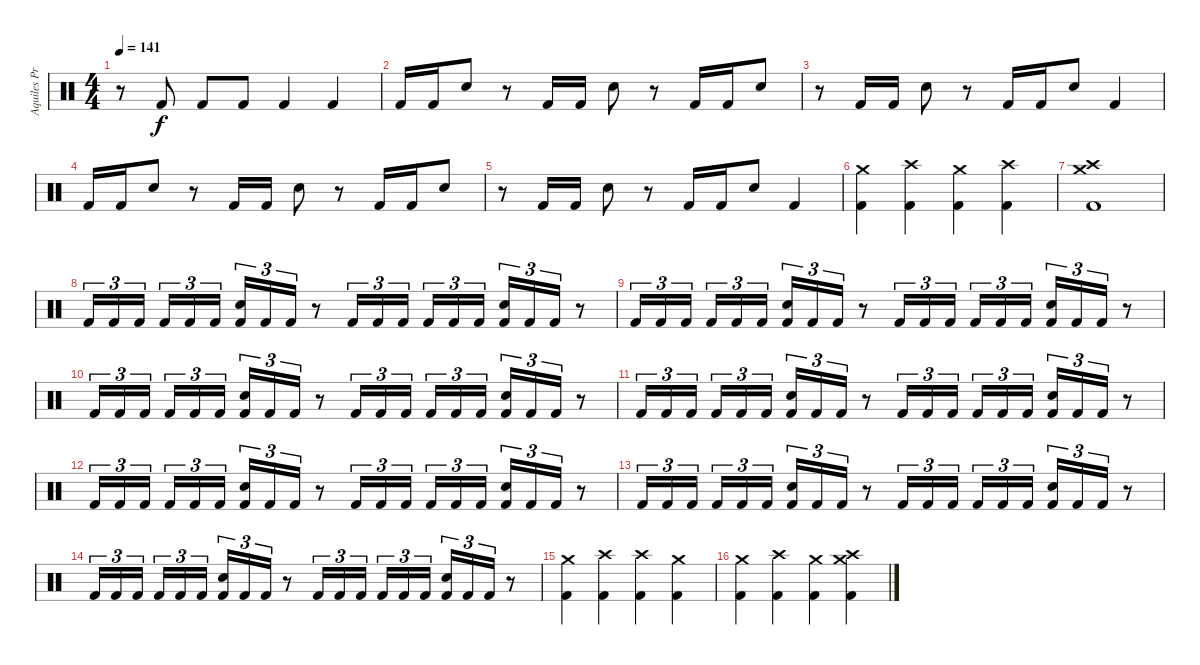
\track ("Aquiles Priester" "Aquiles Pr") {instrument percussion}
\staff {score}
\articulation defaults
\ts (4 4)
\tempo 141
\clef neutral
\ks c
r.8{dy f} "Kick (hit) 2".8 "Kick (hit) 2".8 "Kick (hit) 2".8 "Kick (hit) 2".4 "Kick (hit) 2".4 |
"Kick (hit) 2".16 "Kick (hit) 2".16 "Electric Snare (hit)".8 r.8 "Kick (hit) 2".16 "Kick (hit) 2".16 "Electric Snare (hit)".8 r.8 "Kick (hit) 2".16 "Kick (hit) 2".16 "Electric Snare (hit)".8 |
r.8 "Kick (hit) 2".16 "Kick (hit) 2".16 "Electric Snare (hit)".8 r.8 "Kick (hit) 2".16 "Kick (hit) 2".16 "Electric Snare (hit)".8 "Kick (hit) 2".4 |
"Kick (hit) 2".16 "Kick (hit) 2".16 "Electric Snare (hit)".8 r.8 "Kick (hit) 2".16 "Kick (hit) 2".16 "Electric Snare (hit)".8 r.8 "Kick (hit) 2".16 "Kick (hit) 2".16 "Electric Snare (hit)".8 |
r.8 "Kick (hit) 2".16 "Kick (hit) 2".16 "Electric Snare (hit)".8 r.8 "Kick (hit) 2".16 "Kick (hit) 2".16 "Electric Snare (hit)".8 "Kick (hit) 2".4 |
("Crash medium (hit)" "Kick (hit) 2").4 ("Crash high (hit)" "Kick (hit) 2").4 ("Crash medium (hit)" "Kick (hit) 2").4 ("Crash high (hit)" "Kick (hit) 2").4 |
("Crash high (hit)" "Crash medium (hit)" "Kick (hit) 2").1 |
"Kick (hit) 2".16{tu (3 2)} "Kick (hit) 2".16{tu (3 2)} "Kick (hit) 2".16{tu (3 2)} "Kick (hit) 2".16{tu (3 2)} "Kick (hit) 2".16{tu (3 2)} "Kick (hit) 2".16{tu (3 2)} ("Electric Snare (hit)" "Kick (hit) 2").16{tu (3 2)} "Kick (hit) 2".16{tu (3 2)} "Kick (hit) 2".16{tu (3 2)} r.8 "Kick (hit) 2".16{tu (3 2)} "Kick (hit) 2".16{tu (3 2)} "Kick (hit) 2".16{tu (3 2)} "Kick (hit) 2".16{tu (3 2)} "Kick (hit) 2".16{tu (3 2)} "Kick (hit) 2".16{tu (3 2)} ("Electric Snare (hit)" "Kick (hit) 2").16{tu (3 2)} "Kick (hit) 2".16{tu (3 2)} "Kick (hit) 2".16{tu (3 2)} r.8 |
"Kick (hit) 2".16{tu (3 2)} "Kick (hit) 2".16{tu (3 2)} "Kick (hit) 2".16{tu (3 2)} "Kick (hit) 2".16{tu (3 2)} "Kick (hit) 2".16{tu (3 2)} "Kick (hit) 2".16{tu (3 2)} ("Electric Snare (hit)" "Kick (hit) 2").16{tu (3 2)} "Kick (hit) 2".16{tu (3 2)} "Kick (hit) 2".16{tu (3 2)} r.8 "Kick (hit) 2".16{tu (3 2)} "Kick (hit) 2".16{tu (3 2)} "Kick (hit) 2".16{tu (3 2)} "Kick (hit) 2".16{tu (3 2)} "Kick (hit) 2".16{tu (3 2)} "Kick (hit) 2".16{tu (3 2)} ("Electric Snare (hit)" "Kick (hit) 2").16{tu (3 2)} "Kick (hit) 2".16{tu (3 2)} "Kick (hit) 2".16{tu (3 2)} r.8 |
"Kick (hit) 2".16{tu (3 2)} "Kick (hit) 2".16{tu (3 2)} "Kick (hit) 2".16{tu (3 2)} "Kick (hit) 2".16{tu (3 2)} "Kick (hit) 2".16{tu (3 2)} "Kick (hit) 2".16{tu (3 2)} ("Electric Snare (hit)" "Kick (hit) 2").16{tu (3 2)} "Kick (hit) 2".16{tu (3 2)} "Kick (hit) 2".16{tu (3 2)} r.8 "Kick (hit) 2".16{tu (3 2)} "Kick (hit) 2".16{tu (3 2)} "Kick (hit) 2".16{tu (3 2)} "Kick (hit) 2".16{tu (3 2)} "Kick (hit) 2".16{tu (3 2)} "Kick (hit) 2".16{tu (3 2)} ("Electric Snare (hit)" "Kick (hit) 2").16{tu (3 2)} "Kick (hit) 2".16{tu (3 2)} "Kick (hit) 2".16{tu (3 2)} r.8 |
"Kick (hit) 2".16{tu (3 2)} "Kick (hit) 2".16{tu (3 2)} "Kick (hit) 2".16{tu (3 2)} "Kick (hit) 2".16{tu (3 2)} "Kick (hit) 2".16{tu (3 2)} "Kick (hit) 2".16{tu (3 2)} ("Electric Snare (hit)" "Kick (hit) 2").16{tu (3 2)} "Kick (hit) 2".16{tu (3 2)} "Kick (hit) 2".16{tu (3 2)} r.8 "Kick (hit) 2".16{tu (3 2)} "Kick (hit) 2".16{tu (3 2)} "Kick (hit) 2".16{tu (3 2)} "Kick (hit) 2".16{tu (3 2)} "Kick (hit) 2".16{tu (3 2)} "Kick (hit) 2".16{tu (3 2)} ("Electric Snare (hit)" "Kick (hit) 2").16{tu (3 2)} "Kick (hit) 2".16{tu (3 2)} "Kick (hit) 2".16{tu (3 2)} r.8 |
"Kick (hit) 2".16{tu (3 2)} "Kick (hit) 2".16{tu (3 2)} "Kick (hit) 2".16{tu (3 2)} "Kick (hit) 2".16{tu (3 2)} "Kick (hit) 2".16{tu (3 2)} "Kick (hit) 2".16{tu (3 2)} ("Electric Snare (hit)" "Kick (hit) 2").16{tu (3 2)} "Kick (hit) 2".16{tu (3 2)} "Kick (hit) 2".16{tu (3 2)} r.8 "Kick (hit) 2".16{tu (3 2)} "Kick (hit) 2".16{tu (3 2)} "Kick (hit) 2".16{tu (3 2)} "Kick (hit) 2".16{tu (3 2)} "Kick (hit) 2".16{tu (3 2)} "Kick (hit) 2".16{tu (3 2)} ("Electric Snare (hit)" "Kick (hit) 2").16{tu (3 2)} "Kick (hit) 2".16{tu (3 2)} "Kick (hit) 2".16{tu (3 2)} r.8 |
"Kick (hit) 2".16{tu (3 2)} "Kick (hit) 2".16{tu (3 2)} "Kick (hit) 2".16{tu (3 2)} "Kick (hit) 2".16{tu (3 2)} "Kick (hit) 2".16{tu (3 2)} "Kick (hit) 2".16{tu (3 2)} ("Electric Snare (hit)" "Kick (hit) 2").16{tu (3 2)} "Kick (hit) 2".16{tu (3 2)} "Kick (hit) 2".16{tu (3 2)} r.8 "Kick (hit) 2".16{tu (3 2)} "Kick (hit) 2".16{tu (3 2)} "Kick (hit) 2".16{tu (3 2)} "Kick (hit) 2".16{tu (3 2)} "Kick (hit) 2".16{tu (3 2)} "Kick (hit) 2".16{tu (3 2)} ("Electric Snare (hit)" "Kick (hit) 2").16{tu (3 2)} "Kick (hit) 2".16{tu (3 2)} "Kick (hit) 2".16{tu (3 2)} r.8 |
"Kick (hit) 2".16{tu (3 2)} "Kick (hit) 2".16{tu (3 2)} "Kick (hit) 2".16{tu (3 2)} "Kick (hit) 2".16{tu (3 2)} "Kick (hit) 2".16{tu (3 2)} "Kick (hit) 2".16{tu (3 2)} ("Electric Snare (hit)" "Kick (hit) 2").16{tu (3 2)} "Kick (hit) 2".16{tu (3 2)} "Kick (hit) 2".16{tu (3 2)} r.8 "Kick (hit) 2".16{tu (3 2)} "Kick (hit) 2".16{tu (3 2)} "Kick (hit) 2".16{tu (3 2)} "Kick (hit) 2".16{tu (3 2)} "Kick (hit) 2".16{tu (3 2)} "Kick (hit) 2".16{tu (3 2)} ("Electric Snare (hit)" "Kick (hit) 2").16{tu (3 2)} "Kick (hit) 2".16{tu (3 2)} "Kick (hit) 2".16{tu (3 2)} r.8 |
("Crash medium (hit)" "Kick (hit) 2").4 ("Crash high (hit)" "Kick (hit) 2").4 ("Crash high (hit)" "Kick (hit) 2").4 ("Crash medium (hit)" "Kick (hit) 2").4 |
("Crash medium (hit)" "Kick (hit) 2").4 ("Crash high (hit)" "Kick (hit) 2").4 ("Crash medium (hit)" "Kick (hit) 2").4 ("Crash medium (hit)" "Crash high (hit)" "Kick (hit) 2").4
